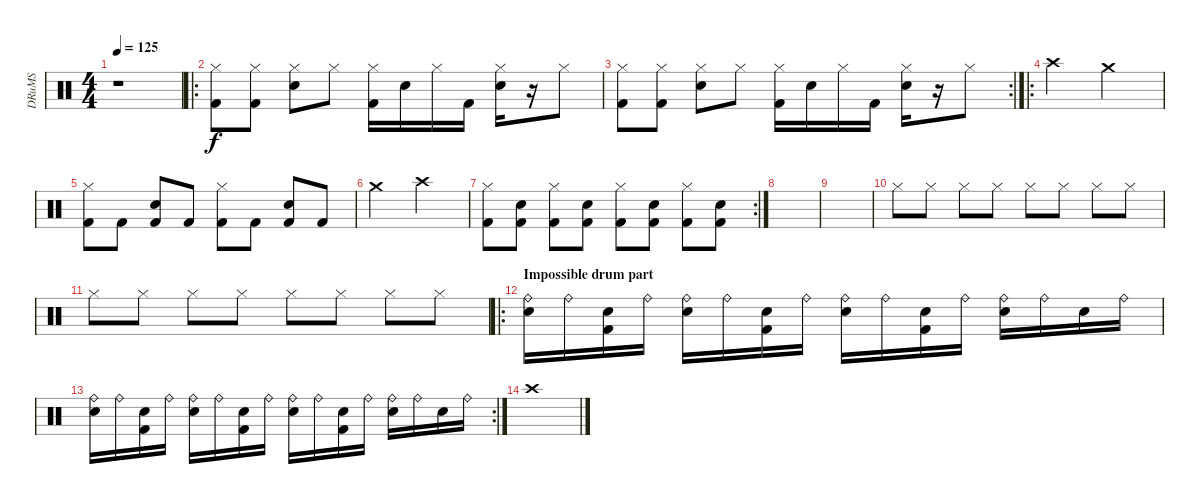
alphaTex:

\track ("DRuMS" "DRuMS") {instrument percussion}
\staff {score}
\articulation defaults
\ts (4 4)
\tempo 125
\clef neutral
\ks c
r.1{dy f} |
\ro
("Hi-Hat (closed)" "Kick (hit) 2").8 ("Hi-Hat (closed)" "Kick (hit) 2").8 ("Hi-Hat (closed)" "Snare (hit) 2").8 "Hi-Hat (closed)".8 ("Hi-Hat (closed)" "Kick (hit) 2").16 "Snare (hit) 2".16 "Hi-Hat (closed)".16 "Kick (hit) 2".16 ("Hi-Hat (closed)" "Snare (hit) 2").16 r.16 "Hi-Hat (closed)".8 |
\rc 2
("Hi-Hat (closed)" "Kick (hit) 2").8 ("Hi-Hat (closed)" "Kick (hit) 2").8 ("Hi-Hat (closed)" "Snare (hit) 2").8 "Hi-Hat (closed)".8 ("Hi-Hat (closed)" "Kick (hit) 2").16 "Snare (hit) 2".16 "Hi-Hat (closed)".16 "Kick (hit) 2".16 ("Hi-Hat (closed)" "Snare (hit) 2").16 r.16 "Hi-Hat (closed)".8 |
\ro "Crash high (hit)".2 "Crash medium (hit)".2
|
("Hi-Hat (closed)" "Kick (hit) 2").8 "Kick (hit) 2".8 ("Snare (hit) 2" "Kick (hit) 2").8 "Kick (hit) 2".8 ("Hi-Hat (closed)" "Kick (hit) 2").8 "Kick (hit) 2".8 ("Snare (hit) 2" "Kick (hit) 2").8 "Kick (hit) 2".8 |
"Crash medium (hit)".2 "Crash high (hit)".2 |
\rc 2
("Hi-Hat (closed)" "Kick (hit) 2").8 ("Snare (hit) 2" "Kick (hit) 2").8 ("Hi-Hat (closed)" "Kick (hit) 2").8 ("Snare (hit) 2" "Kick (hit) 2").8 ("Hi-Hat (closed)" "Kick (hit) 2").8 ("Snare (hit) 2" "Kick (hit) 2").8 ("Hi-Hat (closed)" "Kick (hit) 2").8 ("Snare (hit) 2" "Kick (hit) 2").8 |
|
|
"Hi-Hat (closed)".8 "Hi-Hat (closed)".8 "Hi-Hat (closed)".8 "Hi-Hat (closed)".8 "Hi-Hat (closed)".8 "Hi-Hat (closed)".8 "Hi-Hat (closed)".8 "Hi-Hat (closed)".8 |
"Hi-Hat (closed)".8 "Hi-Hat (closed)".8 "Hi-Hat (closed)".8 "Hi-Hat (closed)".8 "Hi-Hat (closed)".8 "Hi-Hat (closed)".8 "Hi-Hat (closed)".8 "Hi-Hat (closed)".8 |
\ro
\section ("" "Impossible drum part")
("Ride (bell)" "Snare (hit) 2").16 "Ride (bell)".16 ("Snare (hit) 2" "Kick (hit) 2").16 "Ride (bell)".16 ("Ride (bell)" "Snare (hit) 2").16 "Ride (bell)".16 ("Snare (hit) 2" "Kick (hit) 2").16 "Ride (bell)".16 ("Ride (bell)" "Snare (hit) 2").16 "Ride (bell)".16 ("Snare (hit) 2" "Kick (hit) 2").16 "Ride (bell)".16 ("Ride (bell)" "Snare (hit) 2").16 "Ride (bell)".16 "Snare (hit) 2".16 "Ride (bell)".16 |
\rc 2
("Ride (bell)" "Snare (hit) 2").16 "Ride (bell)".16 ("Snare (hit) 2" "Kick (hit) 2").16 "Ride (bell)".16 ("Ride (bell)" "Snare (hit) 2").16 "Ride (bell)".16 ("Snare (hit) 2" "Kick (hit) 2").16 "Ride (bell)".16 ("Ride (bell)" "Snare (hit) 2").16 "Ride (bell)".16 ("Snare (hit) 2" "Kick (hit) 2").16 "Ride (bell)".16 ("Ride (bell)" "Snare (hit) 2").16 "Ride (bell)".16 "Snare (hit) 2".16 "Ride (bell)".16 |
"Crash high (hit)".1
